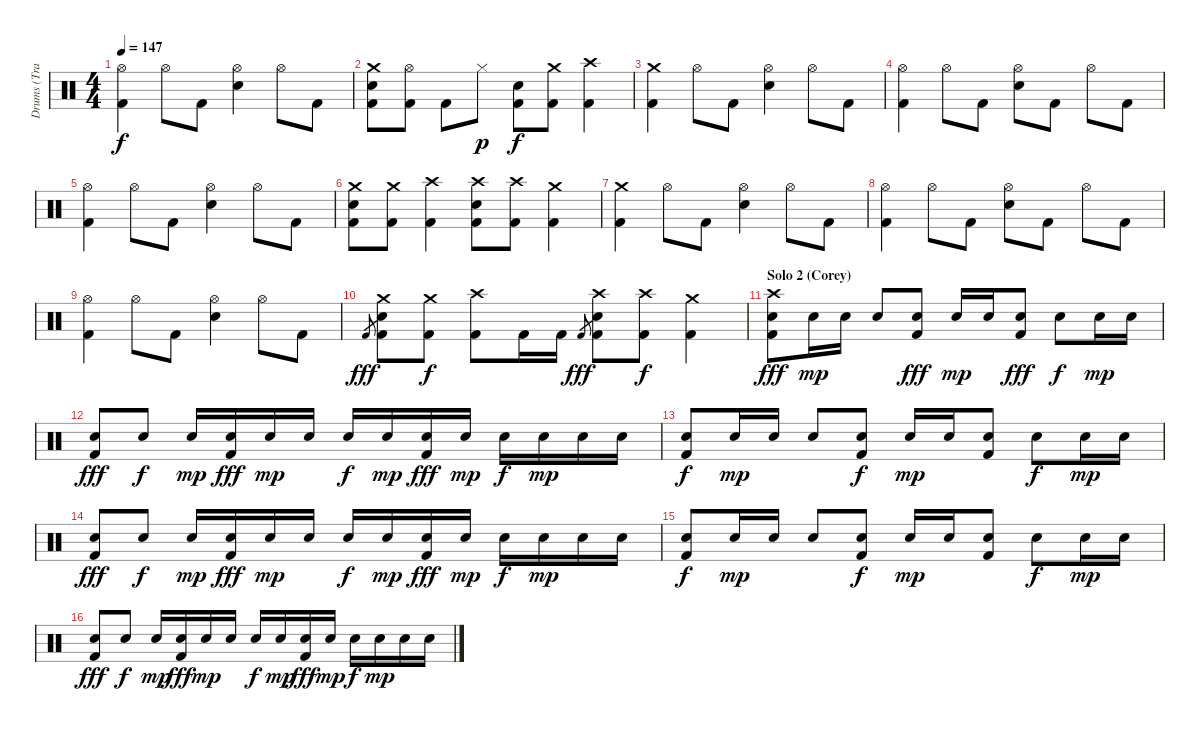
\track ("Drums (Travis)" "Drums (Tra") {instrument percussion}
\staff {score}
\articulation defaults
\ts (4 4)
\tempo 147
\clef neutral
\ks c
("Hi-Hat (open)" "Kick (hit) 2").4{dy f} "Hi-Hat (open)".8 "Kick (hit) 2".8 ("Hi-Hat (open)" "Snare (hit) 2").4 "Hi-Hat (open)".8 "Kick (hit) 2".8 |
("Crash medium (hit)" "Snare (hit) 2" "Kick (hit) 2").8 ("Hi-Hat (open)" "Kick (hit) 2").8 "Kick (hit) 2".8 "Hi-Hat (closed)".8{dy p} ("Snare (hit) 2" "Kick (hit) 2").8{dy f} ("Crash medium (hit)" "Kick (hit) 2").8 ("Crash high (hit)" "Kick (hit) 2").4 |
("Crash medium (hit)" "Kick (hit) 2").4 "Hi-Hat (open)".8 "Kick (hit) 2".8 ("Hi-Hat (open)" "Snare (hit) 2").4 "Hi-Hat (open)".8 "Kick (hit) 2".8 |
("Hi-Hat (open)" "Kick (hit) 2").4 "Hi-Hat (open)".8 "Kick (hit) 2".8 ("Hi-Hat (open)" "Snare (hit) 2").8 "Kick (hit) 2".8 "Hi-Hat (open)".8 "Kick (hit) 2".8 |
("Hi-Hat (open)" "Kick (hit) 2").4 "Hi-Hat (open)".8 "Kick (hit) 2".8 ("Hi-Hat (open)" "Snare (hit) 2").4 "Hi-Hat (open)".8 "Kick (hit) 2".8 |
("Crash medium (hit)" "Snare (hit) 2" "Kick (hit) 2").8 ("Crash medium (hit)" "Kick (hit) 2").8 ("Crash high (hit)" "Kick (hit) 2").4 ("Crash high (hit)" "Snare (hit) 2" "Kick (hit) 2").8 ("Crash high (hit)" "Kick (hit) 2").8 ("Crash medium (hit)" "Kick (hit) 2").4 |
("Crash medium (hit)" "Kick (hit) 2").4 "Hi-Hat (open)".8 "Kick (hit) 2".8 ("Hi-Hat (open)" "Snare (hit) 2").4 "Hi-Hat (open)".8 "Kick (hit) 2".8 |
("Hi-Hat (open)" "Kick (hit) 2").4 "Hi-Hat (open)".8 "Kick (hit) 2".8 ("Hi-Hat (open)" "Snare (hit) 2").8 "Kick (hit) 2".8 "Hi-Hat (open)".8 "Kick (hit) 2".8 |
("Hi-Hat (open)" "Kick (hit) 2").4 "Hi-Hat (open)".8 "Kick (hit) 2".8 ("Hi-Hat (open)" "Snare (hit) 2").4 "Hi-Hat (open)".8 "Kick (hit) 2".8 |
"Kick (hit) 2".8{gr dy fff} ("Crash medium (hit)" "Snare (hit) 2" "Kick (hit) 2").8 ("Crash medium (hit)" "Kick (hit) 2").8{dy f} ("Crash high (hit)" "Kick (hit) 2").8 "Kick (hit) 2".16 "Kick (hit) 2".16 "Kick (hit) 2".8{gr dy fff} ("Crash high (hit)" "Snare (hit) 2" "Kick (hit) 2").8 ("Crash high (hit)" "Kick (hit) 2").8{dy f} ("Crash medium (hit)" "Kick (hit) 2").4 |
\section ("" "Solo 2 (Corey)")
("Crash high (hit)" "Snare (hit) 2" "Kick (hit) 2").8{dy fff} "Snare (hit) 2".16{dy mp} "Snare (hit) 2".16 "Snare (hit) 2".8 ("Snare (hit) 2" "Kick (hit) 2").8{dy fff} "Snare (hit) 2".16{dy mp} "Snare (hit) 2".16 ("Snare (hit) 2" "Kick (hit) 2").8{dy fff} "Snare (hit) 2".8{dy f} "Snare (hit) 2".16{dy mp} "Snare (hit) 2".16 |
("Snare (hit) 2" "Kick (hit) 2").8{dy fff} "Snare (hit) 2".8{dy f} "Snare (hit) 2".16{dy mp} ("Snare (hit) 2" "Kick (hit) 2").16{dy fff} "Snare (hit) 2".16{dy mp} "Snare (hit) 2".16 "Snare (hit) 2".16{dy f} "Snare (hit) 2".16{dy mp} ("Snare (hit) 2" "Kick (hit) 2").16{dy fff} "Snare (hit) 2".16{dy mp} "Snare (hit) 2".16{dy f} "Snare (hit) 2".16{dy mp} "Snare (hit) 2".16 "Snare (hit) 2".16 |
("Snare (hit) 2" "Kick (hit) 2").8{dy f} "Snare (hit) 2".16{dy mp} "Snare (hit) 2".16 "Snare (hit) 2".8 ("Snare (hit) 2" "Kick (hit) 2").8{dy f} "Snare (hit) 2".16{dy mp} "Snare (hit) 2".16 ("Snare (hit) 2" "Kick (hit) 2").8 "Snare (hit) 2".8{dy f} "Snare (hit) 2".16{dy mp} "Snare (hit) 2".16 |
("Snare (hit) 2" "Kick (hit) 2").8{dy fff} "Snare (hit) 2".8{dy f} "Snare (hit) 2".16{dy mp} ("Snare (hit) 2" "Kick (hit) 2").16{dy fff} "Snare (hit) 2".16{dy mp} "Snare (hit) 2".16 "Snare (hit) 2".16{dy f} "Snare (hit) 2".16{dy mp} ("Snare (hit) 2" "Kick (hit) 2").16{dy fff} "Snare (hit) 2".16{dy mp} "Snare (hit) 2".16{dy f} "Snare (hit) 2".16{dy mp} "Snare (hit) 2".16 "Snare (hit) 2".16 |
("Snare (hit) 2" "Kick (hit) 2").8{dy f} "Snare (hit) 2".16{dy mp} "Snare (hit) 2".16 "Snare (hit) 2".8 ("Snare (hit) 2" "Kick (hit) 2").8{dy f} "Snare (hit) 2".16{dy mp} "Snare (hit) 2".16 ("Snare (hit) 2" "Kick (hit) 2").8 "Snare (hit) 2".8{dy f} "Snare (hit) 2".16{dy mp} "Snare (hit) 2".16 |
("Snare (hit) 2" "Kick (hit) 2").8{dy fff} "Snare (hit) 2".8{dy f} "Snare (hit) 2".16{dy mp} ("Snare (hit) 2" "Kick (hit) 2").16{dy fff} "Snare (hit) 2".16{dy mp} "Snare (hit) 2".16 "Snare (hit) 2".16{dy f} "Snare (hit) 2".16{dy mp} ("Snare (hit) 2" "Kick (hit) 2").16{dy fff} "Snare (hit) 2".16{dy mp} "Snare (hit) 2".16{dy f} "Snare (hit) 2".16{dy mp} "Snare (hit) 2".16 "Snare (hit) 2".16
